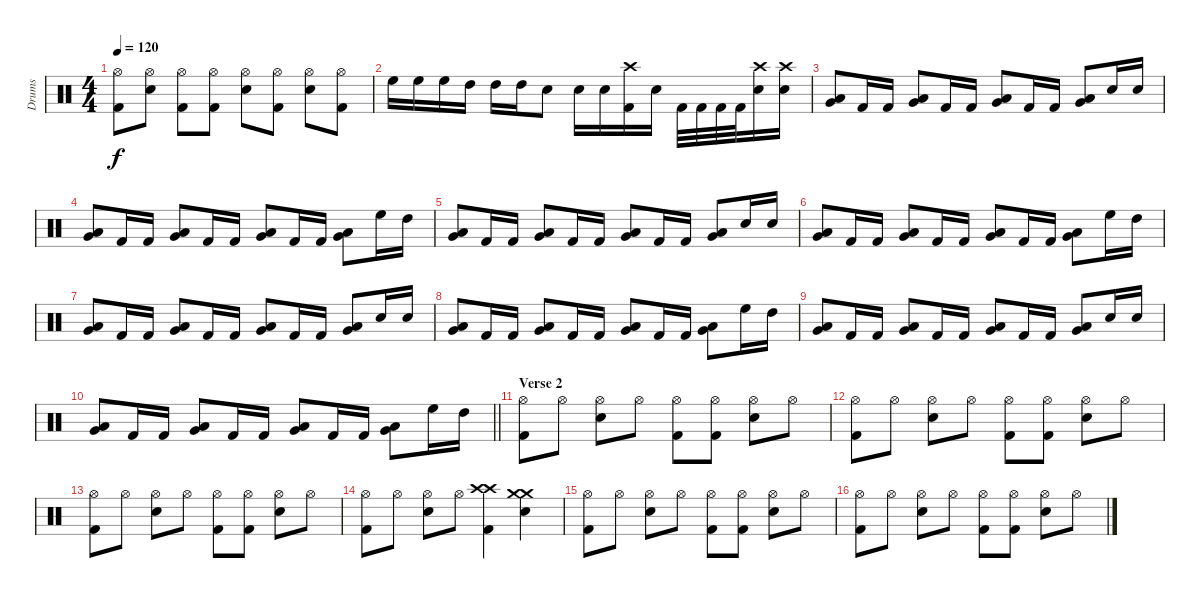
\track ("Drums" "Drums") {instrument percussion}
\staff {score}
\articulation defaults
\ts (4 4)
\tempo 120
\clef neutral
\ks c
("Hi-Hat (open)" "Kick (hit) 2").8{dy f} ("Hi-Hat (open)" "Electric Snare (hit)").8 ("Hi-Hat (open)" "Kick (hit) 2").8 ("Hi-Hat (open)" "Kick (hit) 2").8 ("Hi-Hat (open)" "Electric Snare (hit)").8 ("Hi-Hat (open)" "Kick (hit) 2").8 ("Hi-Hat (open)" "Electric Snare (hit)").8 ("Hi-Hat (open)" "Kick (hit) 2").8 |
"High Floor Tom (hit)".16 "High Floor Tom (hit)".16 "High Floor Tom (hit)".16 "High Tom (hit)".16 "High Tom (hit)".16 "High Tom (hit)".16 "Electric Snare (hit)".8 "Electric Snare (hit)".16 "Electric Snare (hit)".16 ("Crash high (hit)" "Kick (hit) 2").16 "Electric Snare (hit)".16 "Kick (hit) 2".32 "Kick (hit) 2".32 "Kick (hit) 2".32 "Kick (hit) 2".32 ("Crash high (hit)" "Electric Snare (hit)").16 ("Crash high (hit)" "Electric Snare (hit)").16 |
("Low Floor Tom (hit)" "Very Low Tom (hit)").8 "Kick (hit) 2".16 "Kick (hit) 2".16 ("Low Floor Tom (hit)" "Very Low Tom (hit)").8 "Kick (hit) 2".16 "Kick (hit) 2".16 ("Low Floor Tom (hit)" "Very Low Tom (hit)").8 "Kick (hit) 2".16 "Kick (hit) 2".16 ("Low Floor Tom (hit)" "Very Low Tom (hit)").8 "Electric Snare (hit)".16 "Electric Snare (hit)".16 |
("Low Floor Tom (hit)" "Very Low Tom (hit)").8 "Kick (hit) 2".16 "Kick (hit) 2".16 ("Low Floor Tom (hit)" "Very Low Tom (hit)").8 "Kick (hit) 2".16 "Kick (hit) 2".16 ("Low Floor Tom (hit)" "Very Low Tom (hit)").8 "Kick (hit) 2".16 "Kick (hit) 2".16 ("Low Floor Tom (hit)" "Very Low Tom (hit)").8 "High Floor Tom (hit)".16 "High Tom (hit)".16 |
("Low Floor Tom (hit)" "Very Low Tom (hit)").8 "Kick (hit) 2".16 "Kick (hit) 2".16 ("Low Floor Tom (hit)" "Very Low Tom (hit)").8 "Kick (hit) 2".16 "Kick (hit) 2".16 ("Low Floor Tom (hit)" "Very Low Tom (hit)").8 "Kick (hit) 2".16 "Kick (hit) 2".16 ("Low Floor Tom (hit)" "Very Low Tom (hit)").8 "Electric Snare (hit)".16 "Electric Snare (hit)".16 |
("Low Floor Tom (hit)" "Very Low Tom (hit)").8 "Kick (hit) 2".16 "Kick (hit) 2".16 ("Low Floor Tom (hit)" "Very Low Tom (hit)").8 "Kick (hit) 2".16 "Kick (hit) 2".16 ("Low Floor Tom (hit)" "Very Low Tom (hit)").8 "Kick (hit) 2".16 "Kick (hit) 2".16 ("Low Floor Tom (hit)" "Very Low Tom (hit)").8 "High Floor Tom (hit)".16 "High Tom (hit)".16 |
("Low Floor Tom (hit)" "Very Low Tom (hit)").8 "Kick (hit) 2".16 "Kick (hit) 2".16 ("Low Floor Tom (hit)" "Very Low Tom (hit)").8 "Kick (hit) 2".16 "Kick (hit) 2".16 ("Low Floor Tom (hit)" "Very Low Tom (hit)").8 "Kick (hit) 2".16 "Kick (hit) 2".16 ("Low Floor Tom (hit)" "Very Low Tom (hit)").8 "Electric Snare (hit)".16 "Electric Snare (hit)".16 |
("Low Floor Tom (hit)" "Very Low Tom (hit)").8 "Kick (hit) 2".16 "Kick (hit) 2".16 ("Low Floor Tom (hit)" "Very Low Tom (hit)").8 "Kick (hit) 2".16 "Kick (hit) 2".16 ("Low Floor Tom (hit)" "Very Low Tom (hit)").8 "Kick (hit) 2".16 "Kick (hit) 2".16 ("Low Floor Tom (hit)" "Very Low Tom (hit)").8 "High Floor Tom (hit)".16 "High Tom (hit)".16 |
("Low Floor Tom (hit)" "Very Low Tom (hit)").8 "Kick (hit) 2".16 "Kick (hit) 2".16 ("Low Floor Tom (hit)" "Very Low Tom (hit)").8 "Kick (hit) 2".16 "Kick (hit) 2".16 ("Low Floor Tom (hit)" "Very Low Tom (hit)").8 "Kick (hit) 2".16 "Kick (hit) 2".16 ("Low Floor Tom (hit)" "Very Low Tom (hit)").8 "Electric Snare (hit)".16 "Electric Snare (hit)".16 |
\barLineRight lightlight
("Low Floor Tom (hit)" "Very Low Tom (hit)").8 "Kick (hit) 2".16 "Kick (hit) 2".16 ("Low Floor Tom (hit)" "Very Low Tom (hit)").8 "Kick (hit) 2".16 "Kick (hit) 2".16 ("Low Floor Tom (hit)" "Very Low Tom (hit)").8 "Kick (hit) 2".16 "Kick (hit) 2".16 ("Low Floor Tom (hit)" "Very Low Tom (hit)").8 "High Floor Tom (hit)".16 "High Tom (hit)".16 |
\section ("" "Verse 2")
("Hi-Hat (open)" "Kick (hit) 2").8 "Hi-Hat (open)".8 ("Hi-Hat (open)" "Electric Snare (hit)").8 "Hi-Hat (open)".8 ("Hi-Hat (open)" "Kick (hit) 2").8 ("Hi-Hat (open)" "Kick (hit) 2").8 ("Hi-Hat (open)" "Electric Snare (hit)").8 "Hi-Hat (open)".8 |
("Hi-Hat (open)" "Kick (hit) 2").8 "Hi-Hat (open)".8 ("Hi-Hat (open)" "Electric Snare (hit)").8 "Hi-Hat (open)".8 ("Hi-Hat (open)" "Kick (hit) 2").8 ("Hi-Hat (open)" "Kick (hit) 2").8 ("Hi-Hat (open)" "Electric Snare (hit)").8 "Hi-Hat (open)".8 |
("Hi-Hat (open)" "Kick (hit) 2").8 "Hi-Hat (open)".8 ("Hi-Hat (open)" "Electric Snare (hit)").8 "Hi-Hat (open)".8 ("Hi-Hat (open)" "Kick (hit) 2").8 ("Hi-Hat (open)" "Kick (hit) 2").8 ("Hi-Hat (open)" "Electric Snare (hit)").8 "Hi-Hat (open)".8 |
("Hi-Hat (open)" "Kick (hit) 2").8 "Hi-Hat (open)".8 ("Hi-Hat (open)" "Electric Snare (hit)").8 "Hi-Hat (open)".8 ("Crash high (hit)" "Crash high (hit)" "Kick (hit) 2").4 ("Crash medium (hit)" "Crash medium (hit)" "Electric Snare (hit)").4 |
("Hi-Hat (open)" "Kick (hit) 2").8 "Hi-Hat (open)".8 ("Hi-Hat (open)" "Electric Snare (hit)").8 "Hi-Hat (open)".8 ("Hi-Hat (open)" "Kick (hit) 2").8 ("Hi-Hat (open)" "Kick (hit) 2").8 ("Hi-Hat (open)" "Electric Snare (hit)").8 "Hi-Hat (open)".8 |
("Hi-Hat (open)" "Kick (hit) 2").8 "Hi-Hat (open)".8 ("Hi-Hat (open)" "Electric Snare (hit)").8 "Hi-Hat (open)".8 ("Hi-Hat (open)" "Kick (hit) 2").8 ("Hi-Hat (open)" "Kick (hit) 2").8 ("Hi-Hat (open)" "Electric Snare (hit)").8 "Hi-Hat (open)".8
